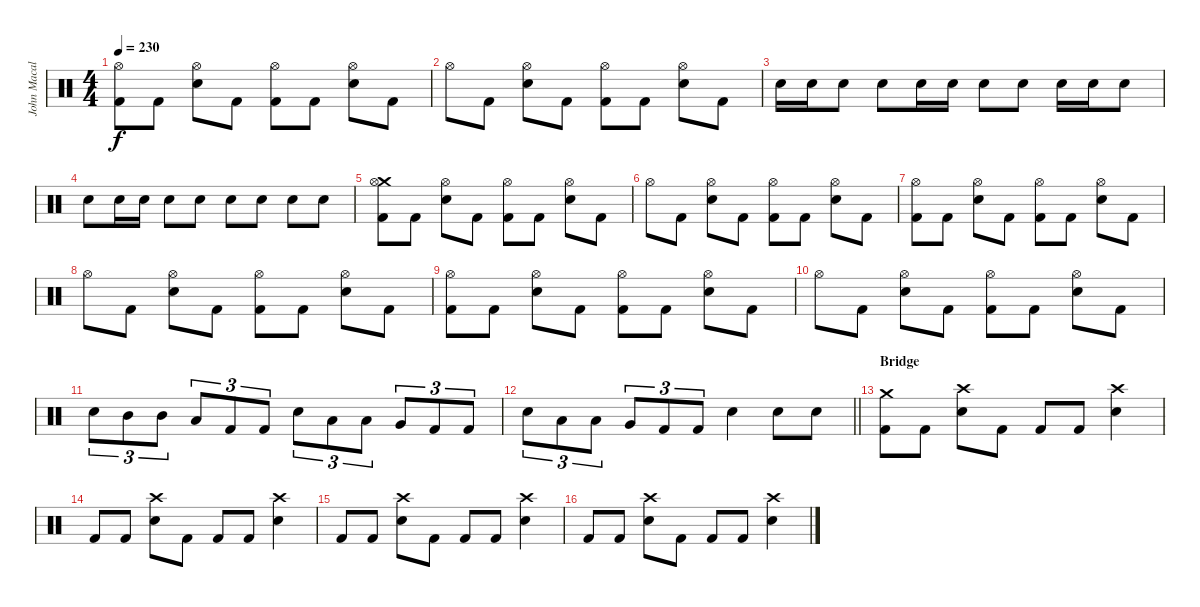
\track ("John Macaluso" "John Macal") {instrument percussion}
\staff {score}
\articulation defaults
\ts (4 4)
\tempo 230
\clef neutral
\ks c
("Hi-Hat (open)" "Kick (hit) 2").8{dy f} "Kick (hit) 2".8 ("Hi-Hat (open)" "Snare (hit) 2").8 "Kick (hit) 2".8 ("Hi-Hat (open)" "Kick (hit) 2").8 "Kick (hit) 2".8 ("Hi-Hat (open)" "Snare (hit) 2").8 "Kick (hit) 2".8 |
"Hi-Hat (open)".8 "Kick (hit) 2".8 ("Hi-Hat (open)" "Snare (hit) 2").8 "Kick (hit) 2".8 ("Hi-Hat (open)" "Kick (hit) 2").8 "Kick (hit) 2".8 ("Hi-Hat (open)" "Snare (hit) 2").8 "Kick (hit) 2".8 |
"Snare (hit) 2".16 "Snare (hit) 2".16 "Snare (hit) 2".8 "Snare (hit) 2".8 "Snare (hit) 2".16 "Snare (hit) 2".16 "Snare (hit) 2".8 "Snare (hit) 2".8 "Snare (hit) 2".16 "Snare (hit) 2".16 "Snare (hit) 2".8 |
"Snare (hit) 2".8 "Snare (hit) 2".16 "Snare (hit) 2".16 "Snare (hit) 2".8 "Snare (hit) 2".8 "Snare (hit) 2".8 "Snare (hit) 2".8 "Snare (hit) 2".8 "Snare (hit) 2".8 |
("Crash medium (hit)" "Hi-Hat (open)" "Kick (hit) 2").8 "Kick (hit) 2".8 ("Hi-Hat (open)" "Snare (hit) 2").8 "Kick (hit) 2".8 ("Hi-Hat (open)" "Kick (hit) 2").8 "Kick (hit) 2".8 ("Hi-Hat (open)" "Snare (hit) 2").8 "Kick (hit) 2".8 |
"Hi-Hat (open)".8 "Kick (hit) 2".8 ("Hi-Hat (open)" "Snare (hit) 2").8 "Kick (hit) 2".8 ("Hi-Hat (open)" "Kick (hit) 2").8 "Kick (hit) 2".8 ("Hi-Hat (open)" "Snare (hit) 2").8 "Kick (hit) 2".8 |
("Hi-Hat (open)" "Kick (hit) 2").8 "Kick (hit) 2".8 ("Hi-Hat (open)" "Snare (hit) 2").8 "Kick (hit) 2".8 ("Hi-Hat (open)" "Kick (hit) 2").8 "Kick (hit) 2".8 ("Hi-Hat (open)" "Snare (hit) 2").8 "Kick (hit) 2".8 |
"Hi-Hat (open)".8 "Kick (hit) 2".8 ("Hi-Hat (open)" "Snare (hit) 2").8 "Kick (hit) 2".8 ("Hi-Hat (open)" "Kick (hit) 2").8 "Kick (hit) 2".8 ("Hi-Hat (open)" "Snare (hit) 2").8 "Kick (hit) 2".8 |
("Hi-Hat (open)" "Kick (hit) 2").8 "Kick (hit) 2".8 ("Hi-Hat (open)" "Snare (hit) 2").8 "Kick (hit) 2".8 ("Hi-Hat (open)" "Kick (hit) 2").8 "Kick (hit) 2".8 ("Hi-Hat (open)" "Snare (hit) 2").8 "Kick (hit) 2".8 |
"Hi-Hat (open)".8 "Kick (hit) 2".8 ("Hi-Hat (open)" "Snare (hit) 2").8 "Kick (hit) 2".8 ("Hi-Hat (open)" "Kick (hit) 2").8 "Kick (hit) 2".8 ("Hi-Hat (open)" "Snare (hit) 2").8 "Kick (hit) 2".8 |
"Snare (hit) 2".8{tu (3 2)} "Mid Tom (hit)".8{tu (3 2)} "Mid Tom (hit)".8{tu (3 2)} "Low Tom (hit)".8{tu (3 2)} "Kick (hit) 2".8{tu (3 2)} "Kick (hit) 2".8{tu (3 2)} "Snare (hit) 2".8{tu (3 2)} "Low Tom (hit)".8{tu (3 2)} "Low Tom (hit)".8{tu (3 2)} "Very Low Tom (hit)".8{tu (3 2)} "Kick (hit) 2".8{tu (3 2)} "Kick (hit) 2".8{tu (3 2)} |
\barLineRight lightlight "Snare (hit) 2".8{tu (3 2)} "Low Tom (hit)".8{tu (3 2)} "Low Tom (hit)".8{tu (3 2)} "Very Low Tom (hit)".8{tu (3 2)} "Kick (hit) 2".8{tu (3 2)} "Kick (hit) 2".8{tu (3 2)} "Snare (hit) 2".4 "Snare (hit) 2".8 "Snare (hit) 2".8
|
\section ("" "Bridge")
("Crash medium (hit)" "Kick (hit) 2").8 "Kick (hit) 2".8 ("Crash high (hit)" "Snare (hit) 2").8 "Kick (hit) 2".8 "Kick (hit) 2".8 "Kick (hit) 2".8 ("Crash high (hit)" "Snare (hit) 2").4 |
"Kick (hit) 2".8 "Kick (hit) 2".8 ("Crash high (hit)" "Snare (hit) 2").8 "Kick (hit) 2".8 "Kick (hit) 2".8 "Kick (hit) 2".8 ("Crash high (hit)" "Snare (hit) 2").4 |
"Kick (hit) 2".8 "Kick (hit) 2".8 ("Crash high (hit)" "Snare (hit) 2").8 "Kick (hit) 2".8 "Kick (hit) 2".8 "Kick (hit) 2".8 ("Crash high (hit)" "Snare (hit) 2").4 |
"Kick (hit) 2".8 "Kick (hit) 2".8 ("Crash high (hit)" "Snare (hit) 2").8 "Kick (hit) 2".8 "Kick (hit) 2".8 "Kick (hit) 2".8 ("Crash high (hit)" "Snare (hit) 2").4
